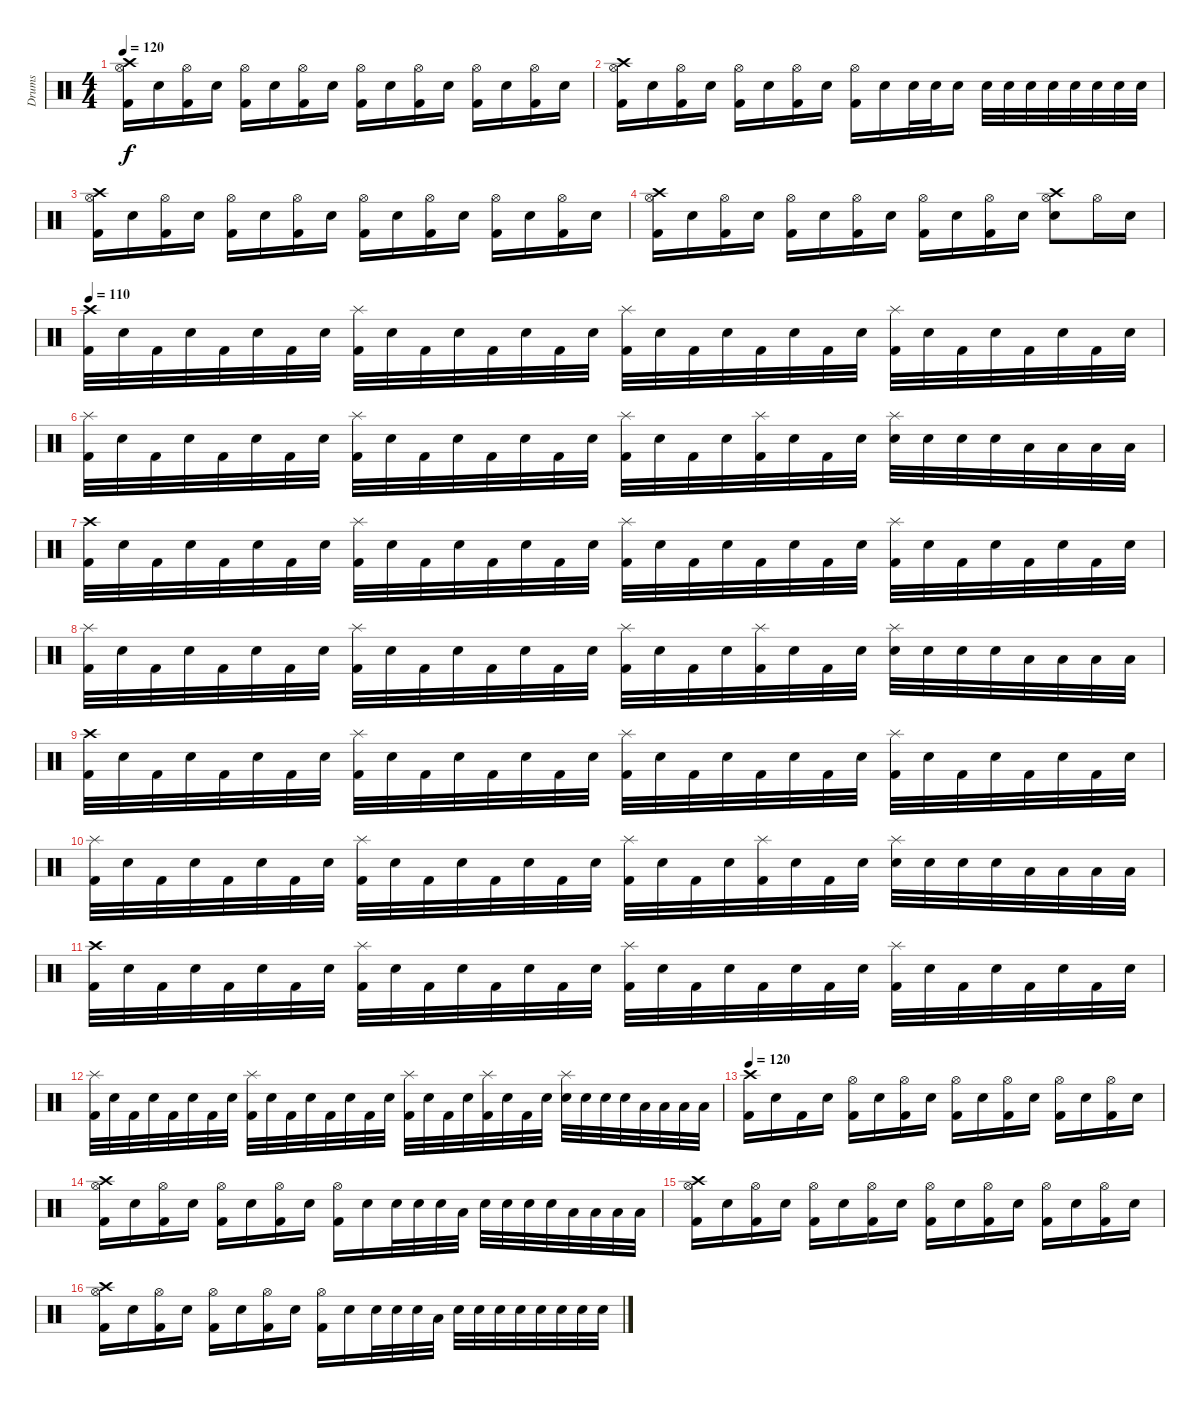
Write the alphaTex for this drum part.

\track ("Drums" "Drums") {instrument percussion}
\staff {score}
\articulation defaults
\ts (4 4)
\tempo 120
\clef neutral
\ks c
("Hi-Hat (open)" "Crash high (hit)" "Kick (hit) 2").16{dy f} "Electric Snare (hit)".16 ("Hi-Hat (open)" "Kick (hit) 2").16 "Electric Snare (hit)".16 ("Hi-Hat (open)" "Kick (hit) 2").16 "Electric Snare (hit)".16 ("Hi-Hat (open)" "Kick (hit) 2").16 "Electric Snare (hit)".16 ("Hi-Hat (open)" "Kick (hit) 2").16 "Electric Snare (hit)".16 ("Hi-Hat (open)" "Kick (hit) 2").16 "Electric Snare (hit)".16 ("Hi-Hat (open)" "Kick (hit) 2").16 "Electric Snare (hit)".16 ("Hi-Hat (open)" "Kick (hit) 2").16 "Electric Snare (hit)".16 |
("Hi-Hat (open)" "Crash high (hit)" "Kick (hit) 2").16 "Electric Snare (hit)".16 ("Hi-Hat (open)" "Kick (hit) 2").16 "Electric Snare (hit)".16 ("Hi-Hat (open)" "Kick (hit) 2").16 "Electric Snare (hit)".16 ("Hi-Hat (open)" "Kick (hit) 2").16 "Electric Snare (hit)".16 ("Hi-Hat (open)" "Kick (hit) 2").16 "Electric Snare (hit)".16 "Electric Snare (hit)".32 "Electric Snare (hit)".32 "Electric Snare (hit)".16 "Electric Snare (hit)".32 "Electric Snare (hit)".32 "Electric Snare (hit)".32 "Electric Snare (hit)".32 "Electric Snare (hit)".32 "Electric Snare (hit)".32 "Electric Snare (hit)".32 "Electric Snare (hit)".32 |
("Hi-Hat (open)" "Crash high (hit)" "Kick (hit) 2").16 "Electric Snare (hit)".16 ("Hi-Hat (open)" "Kick (hit) 2").16 "Electric Snare (hit)".16 ("Hi-Hat (open)" "Kick (hit) 2").16 "Electric Snare (hit)".16 ("Hi-Hat (open)" "Kick (hit) 2").16 "Electric Snare (hit)".16 ("Hi-Hat (open)" "Kick (hit) 2").16 "Electric Snare (hit)".16 ("Hi-Hat (open)" "Kick (hit) 2").16 "Electric Snare (hit)".16 ("Hi-Hat (open)" "Kick (hit) 2").16 "Electric Snare (hit)".16 ("Hi-Hat (open)" "Kick (hit) 2").16 "Electric Snare (hit)".16 |
("Hi-Hat (open)" "Crash high (hit)" "Kick (hit) 2").16 "Electric Snare (hit)".16 ("Hi-Hat (open)" "Kick (hit) 2").16 "Electric Snare (hit)".16 ("Hi-Hat (open)" "Kick (hit) 2").16 "Electric Snare (hit)".16 ("Hi-Hat (open)" "Kick (hit) 2").16 "Electric Snare (hit)".16 ("Hi-Hat (open)" "Kick (hit) 2").16 "Electric Snare (hit)".16 ("Hi-Hat (open)" "Kick (hit) 2").16 "Electric Snare (hit)".16 ("Hi-Hat (open)" "Crash high (hit)" "Electric Snare (hit)").8 "Hi-Hat (open)".16 "Electric Snare (hit)".16 |
\tempo 110
("Crash high (hit)" "Kick (hit) 2").32 "Electric Snare (hit)".32 "Kick (hit) 2".32 "Electric Snare (hit)".32 "Kick (hit) 2".32 "Electric Snare (hit)".32 "Kick (hit) 2".32 "Electric Snare (hit)".32 ("Splash (hit)" "Kick (hit) 2").32 "Electric Snare (hit)".32 "Kick (hit) 2".32 "Electric Snare (hit)".32 "Kick (hit) 2".32 "Electric Snare (hit)".32 "Kick (hit) 2".32 "Electric Snare (hit)".32 ("Splash (hit)" "Kick (hit) 2").32 "Electric Snare (hit)".32 "Kick (hit) 2".32 "Electric Snare (hit)".32 "Kick (hit) 2".32 "Electric Snare (hit)".32 "Kick (hit) 2".32 "Electric Snare (hit)".32 ("Splash (hit)" "Kick (hit) 2").32 "Electric Snare (hit)".32 "Kick (hit) 2".32 "Electric Snare (hit)".32 "Kick (hit) 2".32 "Electric Snare (hit)".32 "Kick (hit) 2".32 "Electric Snare (hit)".32 |
("Splash (hit)" "Kick (hit) 2").32 "Electric Snare (hit)".32 "Kick (hit) 2".32 "Electric Snare (hit)".32 "Kick (hit) 2".32 "Electric Snare (hit)".32 "Kick (hit) 2".32 "Electric Snare (hit)".32 ("Splash (hit)" "Kick (hit) 2").32 "Electric Snare (hit)".32 "Kick (hit) 2".32 "Electric Snare (hit)".32 "Kick (hit) 2".32 "Electric Snare (hit)".32 "Kick (hit) 2".32 "Electric Snare (hit)".32 ("Splash (hit)" "Kick (hit) 2").32 "Electric Snare (hit)".32 "Kick (hit) 2".32 "Electric Snare (hit)".32 ("Splash (hit)" "Kick (hit) 2").32 "Electric Snare (hit)".32 "Kick (hit) 2".32 "Electric Snare (hit)".32 ("Splash (hit)" "Electric Snare (hit)").32 "Electric Snare (hit)".32 "Electric Snare (hit)".32 "Electric Snare (hit)".32 "Low Tom (hit)".32 "Low Tom (hit)".32 "Low Tom (hit)".32 "Low Tom (hit)".32 |
("Crash high (hit)" "Kick (hit) 2").32 "Electric Snare (hit)".32 "Kick (hit) 2".32 "Electric Snare (hit)".32 "Kick (hit) 2".32 "Electric Snare (hit)".32 "Kick (hit) 2".32 "Electric Snare (hit)".32 ("Splash (hit)" "Kick (hit) 2").32 "Electric Snare (hit)".32 "Kick (hit) 2".32 "Electric Snare (hit)".32 "Kick (hit) 2".32 "Electric Snare (hit)".32 "Kick (hit) 2".32 "Electric Snare (hit)".32 ("Splash (hit)" "Kick (hit) 2").32 "Electric Snare (hit)".32 "Kick (hit) 2".32 "Electric Snare (hit)".32 "Kick (hit) 2".32 "Electric Snare (hit)".32 "Kick (hit) 2".32 "Electric Snare (hit)".32 ("Splash (hit)" "Kick (hit) 2").32 "Electric Snare (hit)".32 "Kick (hit) 2".32 "Electric Snare (hit)".32 "Kick (hit) 2".32 "Electric Snare (hit)".32 "Kick (hit) 2".32 "Electric Snare (hit)".32 |
("Splash (hit)" "Kick (hit) 2").32 "Electric Snare (hit)".32 "Kick (hit) 2".32 "Electric Snare (hit)".32 "Kick (hit) 2".32 "Electric Snare (hit)".32 "Kick (hit) 2".32 "Electric Snare (hit)".32 ("Splash (hit)" "Kick (hit) 2").32 "Electric Snare (hit)".32 "Kick (hit) 2".32 "Electric Snare (hit)".32 "Kick (hit) 2".32 "Electric Snare (hit)".32 "Kick (hit) 2".32 "Electric Snare (hit)".32 ("Splash (hit)" "Kick (hit) 2").32 "Electric Snare (hit)".32 "Kick (hit) 2".32 "Electric Snare (hit)".32 ("Splash (hit)" "Kick (hit) 2").32 "Electric Snare (hit)".32 "Kick (hit) 2".32 "Electric Snare (hit)".32 ("Splash (hit)" "Electric Snare (hit)").32 "Electric Snare (hit)".32 "Electric Snare (hit)".32 "Electric Snare (hit)".32 "Low Tom (hit)".32 "Low Tom (hit)".32 "Low Tom (hit)".32 "Low Tom (hit)".32 |
("Crash high (hit)" "Kick (hit) 2").32 "Electric Snare (hit)".32 "Kick (hit) 2".32 "Electric Snare (hit)".32 "Kick (hit) 2".32 "Electric Snare (hit)".32 "Kick (hit) 2".32 "Electric Snare (hit)".32 ("Splash (hit)" "Kick (hit) 2").32 "Electric Snare (hit)".32 "Kick (hit) 2".32 "Electric Snare (hit)".32 "Kick (hit) 2".32 "Electric Snare (hit)".32 "Kick (hit) 2".32 "Electric Snare (hit)".32 ("Splash (hit)" "Kick (hit) 2").32 "Electric Snare (hit)".32 "Kick (hit) 2".32 "Electric Snare (hit)".32 "Kick (hit) 2".32 "Electric Snare (hit)".32 "Kick (hit) 2".32 "Electric Snare (hit)".32 ("Splash (hit)" "Kick (hit) 2").32 "Electric Snare (hit)".32 "Kick (hit) 2".32 "Electric Snare (hit)".32 "Kick (hit) 2".32 "Electric Snare (hit)".32 "Kick (hit) 2".32 "Electric Snare (hit)".32 |
("Splash (hit)" "Kick (hit) 2").32 "Electric Snare (hit)".32 "Kick (hit) 2".32 "Electric Snare (hit)".32 "Kick (hit) 2".32 "Electric Snare (hit)".32 "Kick (hit) 2".32 "Electric Snare (hit)".32 ("Splash (hit)" "Kick (hit) 2").32 "Electric Snare (hit)".32 "Kick (hit) 2".32 "Electric Snare (hit)".32 "Kick (hit) 2".32 "Electric Snare (hit)".32 "Kick (hit) 2".32 "Electric Snare (hit)".32 ("Splash (hit)" "Kick (hit) 2").32 "Electric Snare (hit)".32 "Kick (hit) 2".32 "Electric Snare (hit)".32 ("Splash (hit)" "Kick (hit) 2").32 "Electric Snare (hit)".32 "Kick (hit) 2".32 "Electric Snare (hit)".32 ("Splash (hit)" "Electric Snare (hit)").32 "Electric Snare (hit)".32 "Electric Snare (hit)".32 "Electric Snare (hit)".32 "Low Tom (hit)".32 "Low Tom (hit)".32 "Low Tom (hit)".32 "Low Tom (hit)".32 |
("Crash high (hit)" "Kick (hit) 2").32 "Electric Snare (hit)".32 "Kick (hit) 2".32 "Electric Snare (hit)".32 "Kick (hit) 2".32 "Electric Snare (hit)".32 "Kick (hit) 2".32 "Electric Snare (hit)".32 ("Splash (hit)" "Kick (hit) 2").32 "Electric Snare (hit)".32 "Kick (hit) 2".32 "Electric Snare (hit)".32 "Kick (hit) 2".32 "Electric Snare (hit)".32 "Kick (hit) 2".32 "Electric Snare (hit)".32 ("Splash (hit)" "Kick (hit) 2").32 "Electric Snare (hit)".32 "Kick (hit) 2".32 "Electric Snare (hit)".32 "Kick (hit) 2".32 "Electric Snare (hit)".32 "Kick (hit) 2".32 "Electric Snare (hit)".32 ("Splash (hit)" "Kick (hit) 2").32 "Electric Snare (hit)".32 "Kick (hit) 2".32 "Electric Snare (hit)".32 "Kick (hit) 2".32 "Electric Snare (hit)".32 "Kick (hit) 2".32 "Electric Snare (hit)".32 |
("Splash (hit)" "Kick (hit) 2").32 "Electric Snare (hit)".32 "Kick (hit) 2".32 "Electric Snare (hit)".32 "Kick (hit) 2".32 "Electric Snare (hit)".32 "Kick (hit) 2".32 "Electric Snare (hit)".32 ("Splash (hit)" "Kick (hit) 2").32 "Electric Snare (hit)".32 "Kick (hit) 2".32 "Electric Snare (hit)".32 "Kick (hit) 2".32 "Electric Snare (hit)".32 "Kick (hit) 2".32 "Electric Snare (hit)".32 ("Splash (hit)" "Kick (hit) 2").32 "Electric Snare (hit)".32 "Kick (hit) 2".32 "Electric Snare (hit)".32 ("Splash (hit)" "Kick (hit) 2").32 "Electric Snare (hit)".32 "Kick (hit) 2".32 "Electric Snare (hit)".32 ("Splash (hit)" "Electric Snare (hit)").32 "Electric Snare (hit)".32 "Electric Snare (hit)".32 "Electric Snare (hit)".32 "Low Tom (hit)".32 "Low Tom (hit)".32 "Low Tom (hit)".32 "Low Tom (hit)".32 |
\tempo 120
("Crash high (hit)" "Kick (hit) 2").16 "Electric Snare (hit)".16 "Kick (hit) 2".16 "Electric Snare (hit)".16 ("Hi-Hat (open)" "Kick (hit) 2").16 "Electric Snare (hit)".16 ("Hi-Hat (open)" "Kick (hit) 2").16 "Electric Snare (hit)".16 ("Hi-Hat (open)" "Kick (hit) 2").16 "Electric Snare (hit)".16 ("Hi-Hat (open)" "Kick (hit) 2").16 "Electric Snare (hit)".16 ("Hi-Hat (open)" "Kick (hit) 2").16 "Electric Snare (hit)".16 ("Hi-Hat (open)" "Kick (hit) 2").16 "Electric Snare (hit)".16 |
("Hi-Hat (open)" "Crash high (hit)" "Kick (hit) 2").16 "Electric Snare (hit)".16 ("Hi-Hat (open)" "Kick (hit) 2").16 "Electric Snare (hit)".16 ("Hi-Hat (open)" "Kick (hit) 2").16 "Electric Snare (hit)".16 ("Hi-Hat (open)" "Kick (hit) 2").16 "Electric Snare (hit)".16 ("Hi-Hat (open)" "Kick (hit) 2").16 "Electric Snare (hit)".16 "Electric Snare (hit)".32 "Electric Snare (hit)".32 "Electric Snare (hit)".32 "Low Tom (hit)".32 "Electric Snare (hit)".32 "Electric Snare (hit)".32 "Electric Snare (hit)".32 "Electric Snare (hit)".32 "Low Tom (hit)".32 "Low Tom (hit)".32 "Low Tom (hit)".32 "Low Tom (hit)".32 |
("Hi-Hat (open)" "Crash high (hit)" "Kick (hit) 2").16 "Electric Snare (hit)".16 ("Hi-Hat (open)" "Kick (hit) 2").16 "Electric Snare (hit)".16 ("Hi-Hat (open)" "Kick (hit) 2").16 "Electric Snare (hit)".16 ("Hi-Hat (open)" "Kick (hit) 2").16 "Electric Snare (hit)".16 ("Hi-Hat (open)" "Kick (hit) 2").16 "Electric Snare (hit)".16 ("Hi-Hat (open)" "Kick (hit) 2").16 "Electric Snare (hit)".16 ("Hi-Hat (open)" "Kick (hit) 2").16 "Electric Snare (hit)".16 ("Hi-Hat (open)" "Kick (hit) 2").16 "Electric Snare (hit)".16 |
("Hi-Hat (open)" "Crash high (hit)" "Kick (hit) 2").16 "Electric Snare (hit)".16 ("Hi-Hat (open)" "Kick (hit) 2").16 "Electric Snare (hit)".16 ("Hi-Hat (open)" "Kick (hit) 2").16 "Electric Snare (hit)".16 ("Hi-Hat (open)" "Kick (hit) 2").16 "Electric Snare (hit)".16 ("Hi-Hat (open)" "Kick (hit) 2").16 "Electric Snare (hit)".16 "Electric Snare (hit)".32 "Electric Snare (hit)".32 "Electric Snare (hit)".32 "Low Tom (hit)".32 "Electric Snare (hit)".32 "Electric Snare (hit)".32 "Electric Snare (hit)".32 "Electric Snare (hit)".32 "Electric Snare (hit)".32 "Electric Snare (hit)".32 "Electric Snare (hit)".32 "Electric Snare (hit)".32
